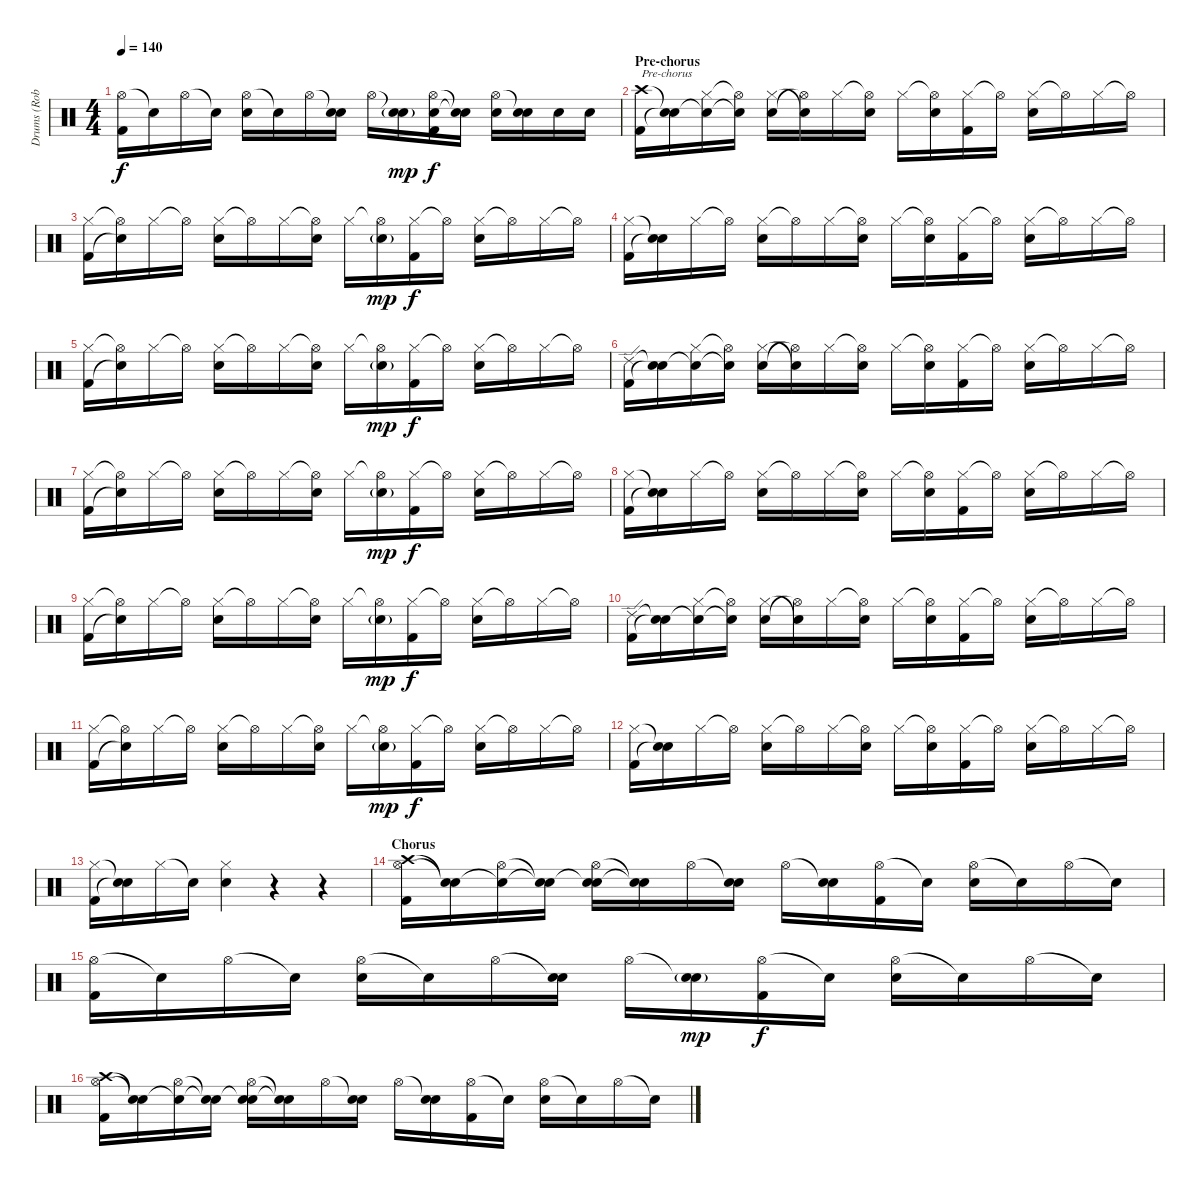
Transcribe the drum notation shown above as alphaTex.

\track ("Drums (Rob Bourdon)" "Drums (Rob") {instrument percussion}
\staff {score}
\articulation defaults
\ts (4 4)
\tempo 140
\clef neutral
\ks c
("Hi-Hat (open)" "Kick (hit) 2").16{dy f} "Snare (hit)"{t}.16 "Hi-Hat (open)".16 "Snare (hit)"{t}.16 ("Hi-Hat (open)" "Electric Snare (hit)").16 "Snare (hit)"{t}.16 "Hi-Hat (open)".16 ("Snare (hit)"{t} "Electric Snare (hit)").16 "Hi-Hat (open)".16 ("Snare (hit)"{t} "Electric Snare (hit)"{g}).16{dy mp} ("Hi-Hat (open)" "Electric Snare (hit)" "Kick (hit) 2").16{dy f} ("Snare (hit)"{t} "Snare (hit)"{t}).16 ("Hi-Hat (open)" "Electric Snare (hit)").16 ("Snare (hit)"{t} "Electric Snare (hit)").16 "Electric Snare (hit)".16 "Electric Snare (hit)".16 |
\section ("" "Pre-chorus")
("Crash high (hit)" "Kick (hit) 2").16{txt "Pre-chorus" volume 12} ("Snare (hit)"{t} "Snare (hit)"{t}).16 ("Snare (hit)"{t} "Hi-Hat (closed)").16 ("Snare (hit)"{t} "Hi-Hat (open)"{t}).16 ("Hi-Hat (closed)" "Electric Snare (hit)").16 ("Snare (hit)"{t} "Hi-Hat (open)"{t}).16 "Hi-Hat (closed)".16 ("Hi-Hat (open)"{t} "Electric Snare (hit)").16 "Hi-Hat (closed)".16 ("Hi-Hat (open)"{t} "Electric Snare (hit)").16 ("Hi-Hat (closed)" "Kick (hit) 2").16 "Hi-Hat (open)"{t}.16 ("Hi-Hat (closed)" "Electric Snare (hit)").16 "Hi-Hat (open)"{t}.16 "Hi-Hat (closed)".16 "Hi-Hat (open)"{t}.16 |
("Hi-Hat (closed)" "Kick (hit) 2").16{volume 12} ("Hi-Hat (open)"{t} "Snare (hit)"{t}).16 "Hi-Hat (closed)".16 "Hi-Hat (open)"{t}.16 ("Hi-Hat (closed)" "Electric Snare (hit)").16 "Hi-Hat (open)"{t}.16 "Hi-Hat (closed)".16 ("Hi-Hat (open)"{t} "Electric Snare (hit)").16 "Hi-Hat (closed)".16 ("Hi-Hat (open)"{t} "Electric Snare (hit)"{g}).16{dy mp} ("Hi-Hat (closed)" "Kick (hit) 2").16{dy f} "Hi-Hat (open)"{t}.16 ("Hi-Hat (closed)" "Electric Snare (hit)").16 "Hi-Hat (open)"{t}.16 "Hi-Hat (closed)".16 "Hi-Hat (open)"{t}.16 |
("Hi-Hat (closed)" "Kick (hit) 2").16{volume 12} ("Snare (hit)"{t} "Snare (hit)"{t}).16 "Hi-Hat (closed)".16 "Hi-Hat (open)"{t}.16 ("Hi-Hat (closed)" "Electric Snare (hit)").16 "Hi-Hat (open)"{t}.16 "Hi-Hat (closed)".16 ("Hi-Hat (open)"{t} "Electric Snare (hit)").16 "Hi-Hat (closed)".16 ("Hi-Hat (open)"{t} "Electric Snare (hit)").16 ("Hi-Hat (closed)" "Kick (hit) 2").16 "Hi-Hat (open)"{t}.16 ("Hi-Hat (closed)" "Electric Snare (hit)").16 "Hi-Hat (open)"{t}.16 "Hi-Hat (closed)".16 "Hi-Hat (open)"{t}.16 |
("Hi-Hat (closed)" "Kick (hit) 2").16{volume 12} ("Hi-Hat (open)"{t} "Snare (hit)"{t}).16 "Hi-Hat (closed)".16 "Hi-Hat (open)"{t}.16 ("Hi-Hat (closed)" "Electric Snare (hit)").16 "Hi-Hat (open)"{t}.16 "Hi-Hat (closed)".16 ("Hi-Hat (open)"{t} "Electric Snare (hit)").16 "Hi-Hat (closed)".16 ("Hi-Hat (open)"{t} "Electric Snare (hit)"{g}).16{dy mp} ("Hi-Hat (closed)" "Kick (hit) 2").16{dy f} "Hi-Hat (open)"{t}.16 ("Hi-Hat (closed)" "Electric Snare (hit)").16 "Hi-Hat (open)"{t}.16 "Hi-Hat (closed)".16 "Hi-Hat (open)"{t}.16 |
("Ride (edge) 2" "Kick (hit) 2").16{volume 12} ("Snare (hit)"{t} "Snare (hit)"{t}).16 ("Snare (hit)"{t} "Hi-Hat (closed)").16 ("Snare (hit)"{t} "Hi-Hat (open)"{t}).16 ("Hi-Hat (closed)" "Electric Snare (hit)").16 ("Snare (hit)"{t} "Hi-Hat (open)"{t}).16 "Hi-Hat (closed)".16 ("Hi-Hat (open)"{t} "Electric Snare (hit)").16 "Hi-Hat (closed)".16 ("Hi-Hat (open)"{t} "Electric Snare (hit)").16 ("Hi-Hat (closed)" "Kick (hit) 2").16 "Hi-Hat (open)"{t}.16 ("Hi-Hat (closed)" "Electric Snare (hit)").16 "Hi-Hat (open)"{t}.16 "Hi-Hat (closed)".16 "Hi-Hat (open)"{t}.16 |
("Hi-Hat (closed)" "Kick (hit) 2").16{volume 12} ("Hi-Hat (open)"{t} "Snare (hit)"{t}).16 "Hi-Hat (closed)".16 "Hi-Hat (open)"{t}.16 ("Hi-Hat (closed)" "Electric Snare (hit)").16 "Hi-Hat (open)"{t}.16 "Hi-Hat (closed)".16 ("Hi-Hat (open)"{t} "Electric Snare (hit)").16 "Hi-Hat (closed)".16 ("Hi-Hat (open)"{t} "Electric Snare (hit)"{g}).16{dy mp} ("Hi-Hat (closed)" "Kick (hit) 2").16{dy f} "Hi-Hat (open)"{t}.16 ("Hi-Hat (closed)" "Electric Snare (hit)").16 "Hi-Hat (open)"{t}.16 "Hi-Hat (closed)".16 "Hi-Hat (open)"{t}.16 |
("Hi-Hat (closed)" "Kick (hit) 2").16{volume 12} ("Snare (hit)"{t} "Snare (hit)"{t}).16 "Hi-Hat (closed)".16 "Hi-Hat (open)"{t}.16 ("Hi-Hat (closed)" "Electric Snare (hit)").16 "Hi-Hat (open)"{t}.16 "Hi-Hat (closed)".16 ("Hi-Hat (open)"{t} "Electric Snare (hit)").16 "Hi-Hat (closed)".16 ("Hi-Hat (open)"{t} "Electric Snare (hit)").16 ("Hi-Hat (closed)" "Kick (hit) 2").16 "Hi-Hat (open)"{t}.16 ("Hi-Hat (closed)" "Electric Snare (hit)").16 "Hi-Hat (open)"{t}.16 "Hi-Hat (closed)".16 "Hi-Hat (open)"{t}.16 |
("Hi-Hat (closed)" "Kick (hit) 2").16{volume 12} ("Hi-Hat (open)"{t} "Snare (hit)"{t}).16 "Hi-Hat (closed)".16 "Hi-Hat (open)"{t}.16 ("Hi-Hat (closed)" "Electric Snare (hit)").16 "Hi-Hat (open)"{t}.16 "Hi-Hat (closed)".16 ("Hi-Hat (open)"{t} "Electric Snare (hit)").16 "Hi-Hat (closed)".16 ("Hi-Hat (open)"{t} "Electric Snare (hit)"{g}).16{dy mp} ("Hi-Hat (closed)" "Kick (hit) 2").16{dy f} "Hi-Hat (open)"{t}.16 ("Hi-Hat (closed)" "Electric Snare (hit)").16 "Hi-Hat (open)"{t}.16 "Hi-Hat (closed)".16 "Hi-Hat (open)"{t}.16 |
("Ride (edge) 2" "Kick (hit) 2").16{volume 12} ("Snare (hit)"{t} "Snare (hit)"{t}).16 ("Snare (hit)"{t} "Hi-Hat (closed)").16 ("Snare (hit)"{t} "Hi-Hat (open)"{t}).16 ("Hi-Hat (closed)" "Electric Snare (hit)").16 ("Snare (hit)"{t} "Hi-Hat (open)"{t}).16 "Hi-Hat (closed)".16 ("Hi-Hat (open)"{t} "Electric Snare (hit)").16 "Hi-Hat (closed)".16 ("Hi-Hat (open)"{t} "Electric Snare (hit)").16 ("Hi-Hat (closed)" "Kick (hit) 2").16 "Hi-Hat (open)"{t}.16 ("Hi-Hat (closed)" "Electric Snare (hit)").16 "Hi-Hat (open)"{t}.16 "Hi-Hat (closed)".16 "Hi-Hat (open)"{t}.16 |
("Hi-Hat (closed)" "Kick (hit) 2").16{volume 12} ("Hi-Hat (open)"{t} "Snare (hit)"{t}).16 "Hi-Hat (closed)".16 "Hi-Hat (open)"{t}.16 ("Hi-Hat (closed)" "Electric Snare (hit)").16 "Hi-Hat (open)"{t}.16 "Hi-Hat (closed)".16 ("Hi-Hat (open)"{t} "Electric Snare (hit)").16 "Hi-Hat (closed)".16 ("Hi-Hat (open)"{t} "Electric Snare (hit)"{g}).16{dy mp} ("Hi-Hat (closed)" "Kick (hit) 2").16{dy f} "Hi-Hat (open)"{t}.16 ("Hi-Hat (closed)" "Electric Snare (hit)").16 "Hi-Hat (open)"{t}.16 "Hi-Hat (closed)".16 "Hi-Hat (open)"{t}.16 |
("Hi-Hat (closed)" "Kick (hit) 2").16{volume 12} ("Snare (hit)"{t} "Snare (hit)"{t}).16 "Hi-Hat (closed)".16 "Hi-Hat (open)"{t}.16 ("Hi-Hat (closed)" "Electric Snare (hit)").16 "Hi-Hat (open)"{t}.16 "Hi-Hat (closed)".16 ("Hi-Hat (open)"{t} "Electric Snare (hit)").16 "Hi-Hat (closed)".16 ("Hi-Hat (open)"{t} "Electric Snare (hit)").16 ("Hi-Hat (closed)" "Kick (hit) 2").16 "Hi-Hat (open)"{t}.16 ("Hi-Hat (closed)" "Electric Snare (hit)").16 "Hi-Hat (open)"{t}.16 "Hi-Hat (closed)".16 "Hi-Hat (open)"{t}.16 |
("Hi-Hat (closed)" "Kick (hit) 2").16 ("Snare (hit)"{t} "Snare (hit)"{t}).16 "Hi-Hat (closed)".16 "Snare (hit)"{t}.16 ("Hi-Hat (closed)" "Electric Snare (hit)").4 r.4 r.4 |
\section ("" "Chorus")
("Crash high (hit)" "Hi-Hat (open)" "Kick (hit) 2").16{volume 14} ("Snare (hit)"{t} "Snare (hit)"{t}).16 ("Snare (hit)"{t} "Hi-Hat (open)").16 ("Snare (hit)"{t} "Snare (hit)"{t}).16 ("Snare (hit)"{t} "Hi-Hat (open)" "Electric Snare (hit)").16 ("Snare (hit)"{t} "Snare (hit)"{t}).16 "Hi-Hat (open)".16 ("Snare (hit)"{t} "Electric Snare (hit)").16 "Hi-Hat (open)".16 ("Snare (hit)"{t} "Electric Snare (hit)").16 ("Hi-Hat (open)" "Kick (hit) 2").16 "Snare (hit)"{t}.16 ("Hi-Hat (open)" "Electric Snare (hit)").16 "Snare (hit)"{t}.16 "Hi-Hat (open)".16 "Snare (hit)"{t}.16 |
("Hi-Hat (open)" "Kick (hit) 2").16 "Snare (hit)"{t}.16 "Hi-Hat (open)".16 "Snare (hit)"{t}.16 ("Hi-Hat (open)" "Electric Snare (hit)").16 "Snare (hit)"{t}.16 "Hi-Hat (open)".16 ("Snare (hit)"{t} "Electric Snare (hit)").16 "Hi-Hat (open)".16 ("Snare (hit)"{t} "Electric Snare (hit)"{g}).16{dy mp} ("Hi-Hat (open)" "Kick (hit) 2").16{dy f} "Snare (hit)"{t}.16 ("Hi-Hat (open)" "Electric Snare (hit)").16 "Snare (hit)"{t}.16 "Hi-Hat (open)".16 "Snare (hit)"{t}.16 |
("Crash high (hit)" "Hi-Hat (open)" "Kick (hit) 2").16{volume 14} ("Snare (hit)"{t} "Snare (hit)"{t}).16 ("Snare (hit)"{t} "Hi-Hat (open)").16 ("Snare (hit)"{t} "Snare (hit)"{t}).16 ("Snare (hit)"{t} "Hi-Hat (open)" "Electric Snare (hit)").16 ("Snare (hit)"{t} "Snare (hit)"{t}).16 "Hi-Hat (open)".16 ("Snare (hit)"{t} "Electric Snare (hit)").16 "Hi-Hat (open)".16 ("Snare (hit)"{t} "Electric Snare (hit)").16 ("Hi-Hat (open)" "Kick (hit) 2").16 "Snare (hit)"{t}.16 ("Hi-Hat (open)" "Electric Snare (hit)").16 "Snare (hit)"{t}.16 "Hi-Hat (open)".16 "Snare (hit)"{t}.16
